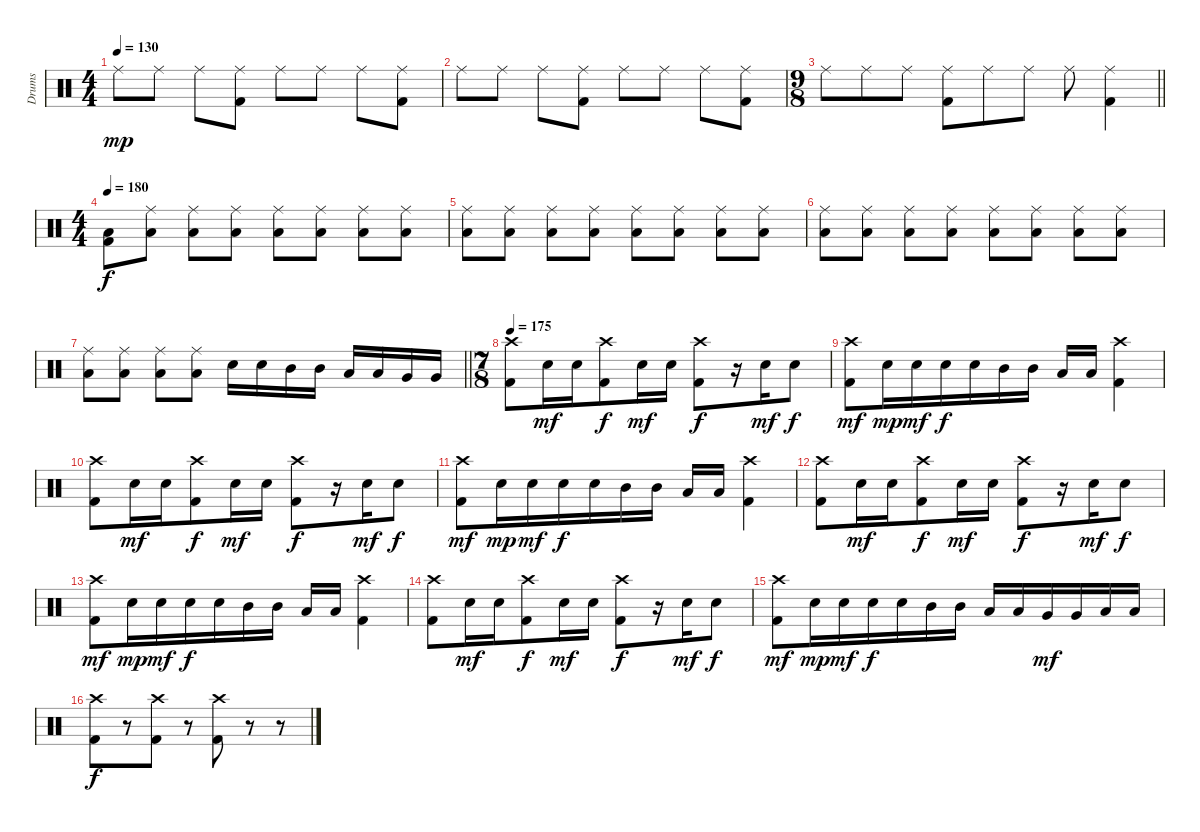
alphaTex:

\track ("Drums" "Drums") {instrument percussion}
\staff {score}
\articulation defaults
\ts (4 4)
\tempo 130
\clef neutral
\ks c "Ride (middle)".8{dy mp} "Ride (middle)".8 "Ride (middle)".8
("Ride (middle)" "Kick (hit) 2").8 "Ride (middle)".8 "Ride (middle)".8 "Ride (middle)".8 ("Ride (middle)" "Kick (hit) 2").8 |
"Ride (middle)".8 "Ride (middle)".8 "Ride (middle)".8 ("Ride (middle)" "Kick (hit) 2").8 "Ride (middle)".8 "Ride (middle)".8 "Ride (middle)".8 ("Ride (middle)" "Kick (hit) 2").8 |
\ts (9 8)
\barLineRight lightlight "Ride (middle)".8 "Ride (middle)".8 "Ride (middle)".8
("Ride (middle)" "Kick (hit) 2").8 "Ride (middle)".8 "Ride (middle)".8 "Ride (middle)".8 ("Ride (middle)" "Kick (hit) 2").4 |
\ts (4 4)
\tempo 180
("Low Floor Tom (hit)" "Kick (hit) 2").8{dy f volume 12} ("Ride (middle)" "Low Floor Tom (hit)").8{volume 8} ("Ride (middle)" "Low Floor Tom (hit)").8{volume 12} ("Ride (middle)" "Low Floor Tom (hit)").8 ("Ride (middle)" "Low Floor Tom (hit)").8 ("Ride (middle)" "Low Floor Tom (hit)").8 ("Ride (middle)" "Low Floor Tom (hit)").8 ("Ride (middle)" "Low Floor Tom (hit)").8 |
("Ride (middle)" "Low Floor Tom (hit)").8 ("Ride (middle)" "Low Floor Tom (hit)").8 ("Ride (middle)" "Low Floor Tom (hit)").8 ("Ride (middle)" "Low Floor Tom (hit)").8 ("Ride (middle)" "Low Floor Tom (hit)").8 ("Ride (middle)" "Low Floor Tom (hit)").8 ("Ride (middle)" "Low Floor Tom (hit)").8 ("Ride (middle)" "Low Floor Tom (hit)").8 |
("Ride (middle)" "Low Floor Tom (hit)").8 ("Ride (middle)" "Low Floor Tom (hit)").8 ("Ride (middle)" "Low Floor Tom (hit)").8 ("Ride (middle)" "Low Floor Tom (hit)").8 ("Ride (middle)" "Low Floor Tom (hit)").8 ("Ride (middle)" "Low Floor Tom (hit)").8 ("Ride (middle)" "Low Floor Tom (hit)").8 ("Ride (middle)" "Low Floor Tom (hit)").8 |
\barLineRight lightlight
("Ride (middle)" "Low Floor Tom (hit)").8 ("Ride (middle)" "Low Floor Tom (hit)").8 ("Ride (middle)" "Low Floor Tom (hit)").8 ("Ride (middle)" "Low Floor Tom (hit)").8 "Snare (hit) 2".16 "Snare (hit) 2".16 "Mid Tom (hit)".16 "Mid Tom (hit)".16 "Low Tom (hit)".16 "Low Tom (hit)".16 "Very Low Tom (hit)".16 "Very Low Tom (hit)".16 |
\ts (7 8)
\tempo 175
("Crash high (hit)" "Kick (hit) 2").8 "Snare (hit) 2".16{dy mf} "Snare (hit) 2".16 ("Crash high (hit)" "Kick (hit) 2").8{dy f} "Snare (hit) 2".16{dy mf} "Snare (hit) 2".16 ("Crash high (hit)" "Kick (hit) 2").8{dy f} r.16 "Snare (hit) 2".16{dy mf} "Snare (hit) 2".8{dy f} |
("Crash high (hit)" "Kick (hit) 2").8{dy mf} "Snare (hit) 2".16{dy mp} "Snare (hit) 2".16{dy mf} "Snare (hit) 2".16{dy f} "Snare (hit) 2".16 "Mid Tom (hit)".16 "Mid Tom (hit)".16 "Low Tom (hit)".16 "Low Tom (hit)".16 ("Crash high (hit)" "Kick (hit) 2").4 |
("Crash high (hit)" "Kick (hit) 2").8 "Snare (hit) 2".16{dy mf} "Snare (hit) 2".16 ("Crash high (hit)" "Kick (hit) 2").8{dy f} "Snare (hit) 2".16{dy mf} "Snare (hit) 2".16 ("Crash high (hit)" "Kick (hit) 2").8{dy f} r.16 "Snare (hit) 2".16{dy mf} "Snare (hit) 2".8{dy f} |
("Crash high (hit)" "Kick (hit) 2").8{dy mf} "Snare (hit) 2".16{dy mp} "Snare (hit) 2".16{dy mf} "Snare (hit) 2".16{dy f} "Snare (hit) 2".16 "Mid Tom (hit)".16 "Mid Tom (hit)".16 "Low Tom (hit)".16 "Low Tom (hit)".16 ("Crash high (hit)" "Kick (hit) 2").4 |
("Crash high (hit)" "Kick (hit) 2").8 "Snare (hit) 2".16{dy mf} "Snare (hit) 2".16 ("Crash high (hit)" "Kick (hit) 2").8{dy f} "Snare (hit) 2".16{dy mf} "Snare (hit) 2".16 ("Crash high (hit)" "Kick (hit) 2").8{dy f} r.16 "Snare (hit) 2".16{dy mf} "Snare (hit) 2".8{dy f} |
("Crash high (hit)" "Kick (hit) 2").8{dy mf} "Snare (hit) 2".16{dy mp} "Snare (hit) 2".16{dy mf} "Snare (hit) 2".16{dy f} "Snare (hit) 2".16 "Mid Tom (hit)".16 "Mid Tom (hit)".16 "Low Tom (hit)".16 "Low Tom (hit)".16 ("Crash high (hit)" "Kick (hit) 2").4 |
("Crash high (hit)" "Kick (hit) 2").8 "Snare (hit) 2".16{dy mf} "Snare (hit) 2".16 ("Crash high (hit)" "Kick (hit) 2").8{dy f} "Snare (hit) 2".16{dy mf} "Snare (hit) 2".16 ("Crash high (hit)" "Kick (hit) 2").8{dy f} r.16 "Snare (hit) 2".16{dy mf} "Snare (hit) 2".8{dy f} |
("Crash high (hit)" "Kick (hit) 2").8{dy mf} "Snare (hit) 2".16{dy mp} "Snare (hit) 2".16{dy mf} "Snare (hit) 2".16{dy f} "Snare (hit) 2".16 "Mid Tom (hit)".16 "Mid Tom (hit)".16 "Low Tom (hit)".16 "Low Tom (hit)".16 "Very Low Tom (hit)".16{dy mf} "Very Low Tom (hit)".16 "Low Floor Tom (hit)".16 "Low Floor Tom (hit)".16 |
("Crash high (hit)" "Kick (hit) 2").8{dy f} r.8 ("Crash high (hit)" "Kick (hit) 2").8 r.8 ("Crash high (hit)" "Kick (hit) 2").8 r.8 r.8
